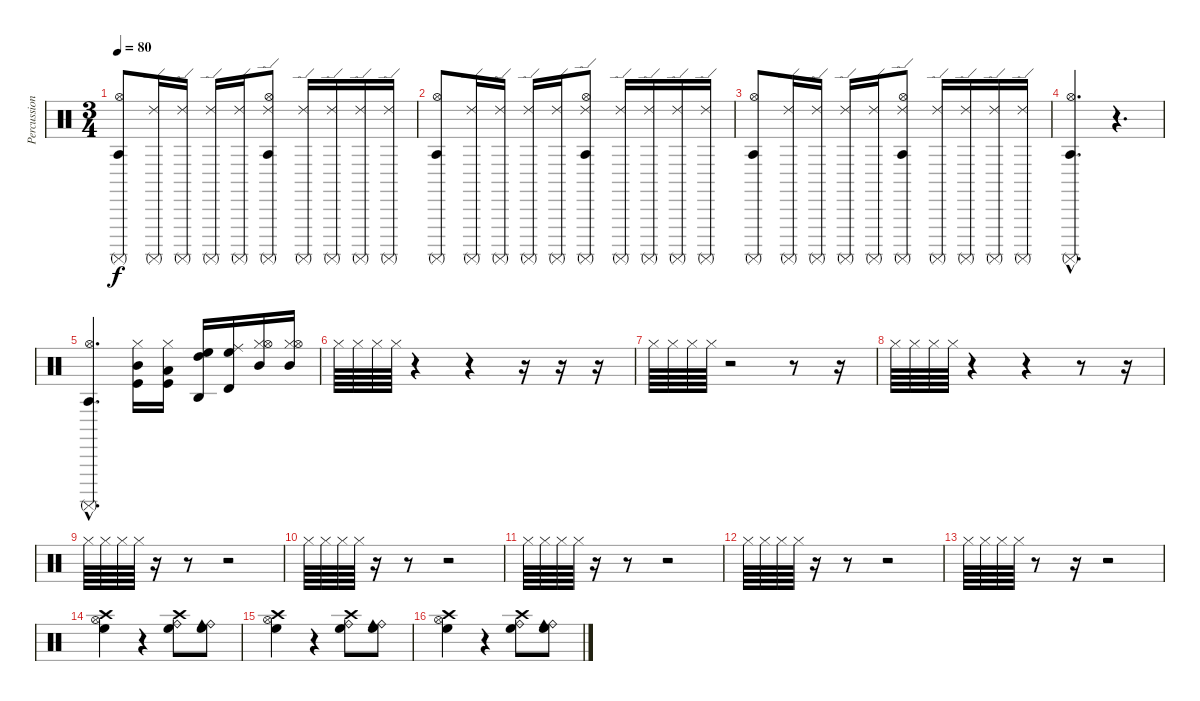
\track ("Percussion" "Percussion") {instrument percussion}
\staff {score}
\articulation defaults
\ts (3 4)
\tempo 80
\clef neutral
\ks c
("Surdo (mute)" "Hi-Hat (open)" "Agogo tow (hit)").8{dy f} ("Surdo (mute)" "Ride (edge) 2").16 ("Surdo (mute)" "Ride (edge) 2").16 ("Surdo (mute)" "Ride (edge) 2").16 ("Surdo (mute)" "Ride (edge) 2").16 ("Surdo (mute)" "Hi-Hat (open)" "Agogo tow (hit)" "Ride (edge) 2").8 ("Surdo (mute)" "Ride (edge) 2").16 ("Surdo (mute)" "Ride (edge) 2").16 ("Surdo (mute)" "Ride (edge) 2").16 ("Surdo (mute)" "Ride (edge) 2").16 |
("Surdo (mute)" "Hi-Hat (open)" "Agogo tow (hit)").8 ("Surdo (mute)" "Ride (edge) 2").16 ("Surdo (mute)" "Ride (edge) 2").16 ("Surdo (mute)" "Ride (edge) 2").16 ("Surdo (mute)" "Ride (edge) 2").16 ("Surdo (mute)" "Hi-Hat (open)" "Agogo tow (hit)" "Ride (edge) 2").8 ("Surdo (mute)" "Ride (edge) 2").16 ("Surdo (mute)" "Ride (edge) 2").16 ("Surdo (mute)" "Ride (edge) 2").16 ("Surdo (mute)" "Ride (edge) 2").16 |
("Surdo (mute)" "Hi-Hat (open)" "Agogo tow (hit)").8 ("Surdo (mute)" "Ride (edge) 2").16 ("Surdo (mute)" "Ride (edge) 2").16 ("Surdo (mute)" "Ride (edge) 2").16 ("Surdo (mute)" "Ride (edge) 2").16 ("Surdo (mute)" "Hi-Hat (open)" "Agogo tow (hit)" "Ride (edge) 2").8 ("Surdo (mute)" "Ride (edge) 2").16 ("Surdo (mute)" "Ride (edge) 2").16 ("Surdo (mute)" "Ride (edge) 2").16 ("Surdo (mute)" "Ride (edge) 2").16 |
("Surdo (mute)"{hac} "Hi-Hat (open)"{hac} "Agogo tow (hit)"{hac}).4{d} r.4{d} |
("Surdo (mute)"{hac} "Hi-Hat (open)"{hac} "Agogo tow (hit)"{hac}).4{d} ("Hi-Hat (closed)" "Kick (hit)" "Mid Tom (hit)").16 ("Low Tom (hit)" "Kick (hit)" "Hi-Hat (closed)").16 ("Agogo high (hit)" "High Tom (hit)" "High Floor Tom (hit)").16 ("Timbale high (hit)" "Ride (middle)" "High Floor Tom (hit)").16 ("Hi-Hat (closed)" "Hi-Hat (open)" "Mid Tom (hit)").16 ("Hi-Hat (closed)" "Hi-Hat (open)" "Mid Tom (hit)").16 |
"Hi-Hat (closed)".64 "Hi-Hat (closed)".64 "Hi-Hat (closed)".64 "Hi-Hat (closed)".64 r.4 r.4 r.16 r.16 r.16 |
"Hi-Hat (closed)".64 "Hi-Hat (closed)".64 "Hi-Hat (closed)".64 "Hi-Hat (closed)".64 r.2 r.8 r.16 |
"Hi-Hat (closed)".64 "Hi-Hat (closed)".64 "Hi-Hat (closed)".64 "Hi-Hat (closed)".64 r.4 r.4 r.8 r.16 |
"Hi-Hat (closed)".64 "Hi-Hat (closed)".64 "Hi-Hat (closed)".64 "Hi-Hat (closed)".64 r.16 r.8 r.2 |
"Hi-Hat (closed)".64 "Hi-Hat (closed)".64 "Hi-Hat (closed)".64 "Hi-Hat (closed)".64 r.16 r.8 r.2 |
"Hi-Hat (closed)".64 "Hi-Hat (closed)".64 "Hi-Hat (closed)".64 "Hi-Hat (closed)".64 r.16 r.8 r.2 |
"Hi-Hat (closed)".64 "Hi-Hat (closed)".64 "Hi-Hat (closed)".64 "Hi-Hat (closed)".64 r.16 r.8 r.2 |
"Hi-Hat (closed)".64 "Hi-Hat (closed)".64 "Hi-Hat (closed)".64 "Hi-Hat (closed)".64 r.8 r.16 r.2 |
("High Floor Tom (hit)" "Hi-Hat (open)" "Crash high (hit)").4 r.4 ("Ride (bell)" "High Floor Tom (hit)" "Crash high (hit)").8 ("Ride (bell)" "Cowbell medium (hit)" "High Floor Tom (hit)").8 |
("High Floor Tom (hit)" "Hi-Hat (open)" "Crash high (hit)").4 r.4 ("Ride (bell)" "High Floor Tom (hit)" "Crash high (hit)").8 ("Ride (bell)" "Cowbell medium (hit)" "High Floor Tom (hit)").8 |
("High Floor Tom (hit)" "Hi-Hat (open)" "Crash high (hit)").4 r.4 ("Ride (bell)" "High Floor Tom (hit)" "Crash high (hit)").8 ("Ride (bell)" "Cowbell medium (hit)" "High Floor Tom (hit)").8
